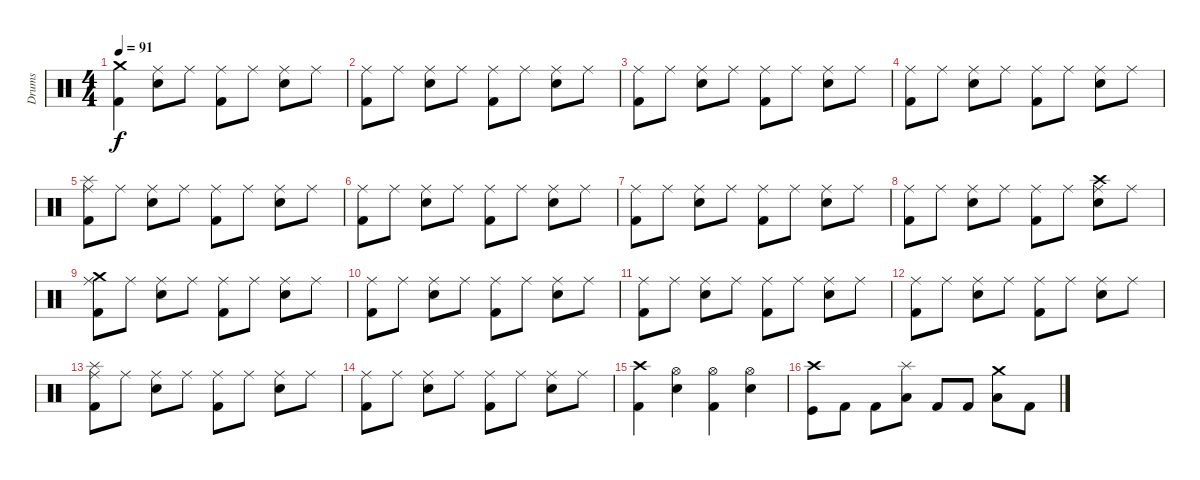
\track ("Drums" "Drums") {instrument percussion}
\staff {score}
\articulation defaults
\ts (4 4)
\tempo 91
\clef neutral
\ks c
("Crash medium (hit)" "Kick (hit) 2").4{dy f} ("Ride (middle)" "Electric Snare (hit)").8 "Ride (middle)".8 ("Ride (middle)" "Kick (hit) 2").8 "Ride (middle)".8 ("Ride (middle)" "Electric Snare (hit)").8 "Ride (middle)".8 |
("Kick (hit) 2" "Ride (middle)").8 "Ride (middle)".8 ("Electric Snare (hit)" "Ride (middle)").8 "Ride (middle)".8 ("Kick (hit) 2" "Ride (middle)").8 "Ride (middle)".8 ("Electric Snare (hit)" "Ride (middle)").8 "Ride (middle)".8 |
("Kick (hit) 2" "Ride (middle)").8 "Ride (middle)".8 ("Electric Snare (hit)" "Ride (middle)").8 "Ride (middle)".8 ("Kick (hit) 2" "Ride (middle)").8 "Ride (middle)".8 ("Electric Snare (hit)" "Ride (middle)").8 "Ride (middle)".8 |
("Kick (hit) 2" "Ride (middle)").8 "Ride (middle)".8 ("Electric Snare (hit)" "Ride (middle)").8 "Ride (middle)".8 ("Kick (hit) 2" "Ride (middle)").8 "Ride (middle)".8 ("Electric Snare (hit)" "Ride (middle)").8 "Ride (middle)".8 |
("Splash (hit)" "Kick (hit) 2" "Ride (middle)").8 "Ride (middle)".8 ("Electric Snare (hit)" "Ride (middle)").8 "Ride (middle)".8 ("Kick (hit) 2" "Ride (middle)").8 "Ride (middle)".8 ("Electric Snare (hit)" "Ride (middle)").8 "Ride (middle)".8 |
("Kick (hit) 2" "Ride (middle)").8 "Ride (middle)".8 ("Electric Snare (hit)" "Ride (middle)").8 "Ride (middle)".8 ("Kick (hit) 2" "Ride (middle)").8 "Ride (middle)".8 ("Electric Snare (hit)" "Ride (middle)").8 "Ride (middle)".8 |
("Kick (hit) 2" "Ride (middle)").8 "Ride (middle)".8 ("Electric Snare (hit)" "Ride (middle)").8 "Ride (middle)".8 ("Kick (hit) 2" "Ride (middle)").8 "Ride (middle)".8 ("Electric Snare (hit)" "Ride (middle)").8 "Ride (middle)".8 |
("Kick (hit) 2" "Ride (middle)").8 "Ride (middle)".8 ("Electric Snare (hit)" "Ride (middle)").8 "Ride (middle)".8 ("Kick (hit) 2" "Ride (middle)").8 "Ride (middle)".8 ("Crash high (hit)" "Electric Snare (hit)" "Ride (middle)").8 "Ride (middle)".8 |
("Crash medium (hit)" "Kick (hit) 2" "Ride (middle)").8 "Ride (middle)".8 ("Electric Snare (hit)" "Ride (middle)").8 "Ride (middle)".8 ("Kick (hit) 2" "Ride (middle)").8 "Ride (middle)".8 ("Electric Snare (hit)" "Ride (middle)").8 "Ride (middle)".8 |
("Kick (hit) 2" "Ride (middle)").8 "Ride (middle)".8 ("Electric Snare (hit)" "Ride (middle)").8 "Ride (middle)".8 ("Kick (hit) 2" "Ride (middle)").8 "Ride (middle)".8 ("Electric Snare (hit)" "Ride (middle)").8 "Ride (middle)".8 |
("Kick (hit) 2" "Ride (middle)").8 "Ride (middle)".8 ("Electric Snare (hit)" "Ride (middle)").8 "Ride (middle)".8 ("Kick (hit) 2" "Ride (middle)").8 "Ride (middle)".8 ("Electric Snare (hit)" "Ride (middle)").8 "Ride (middle)".8 |
("Kick (hit) 2" "Ride (middle)").8 "Ride (middle)".8 ("Electric Snare (hit)" "Ride (middle)").8 "Ride (middle)".8 ("Kick (hit) 2" "Ride (middle)").8 "Ride (middle)".8 ("Electric Snare (hit)" "Ride (middle)").8 "Ride (middle)".8 |
("Kick (hit) 2" "Ride (middle)" "Splash (hit)").8 "Ride (middle)".8 ("Electric Snare (hit)" "Ride (middle)").8 "Ride (middle)".8 ("Kick (hit) 2" "Ride (middle)").8 "Ride (middle)".8 ("Electric Snare (hit)" "Ride (middle)").8 "Ride (middle)".8 |
("Kick (hit) 2" "Ride (middle)").8 "Ride (middle)".8 ("Electric Snare (hit)" "Ride (middle)").8 "Ride (middle)".8 ("Kick (hit) 2" "Ride (middle)").8 "Ride (middle)".8 ("Electric Snare (hit)" "Ride (middle)").8 "Ride (middle)".8 |
("Kick (hit) 2" "Crash high (hit)").4 ("Electric Snare (hit)" "Hi-Hat (open)").4 ("Kick (hit) 2" "Hi-Hat (open)").4 ("Electric Snare (hit)" "Hi-Hat (open)").4 |
("Kick (hit)" "Crash high (hit)").8 "Kick (hit) 2".8 "Kick (hit) 2".8 ("Low Floor Tom (hit)" "Splash (hit)").8 "Kick (hit) 2".8 "Kick (hit) 2".8 ("Low Floor Tom (hit)" "Crash medium (hit)").8 "Kick (hit) 2".8
